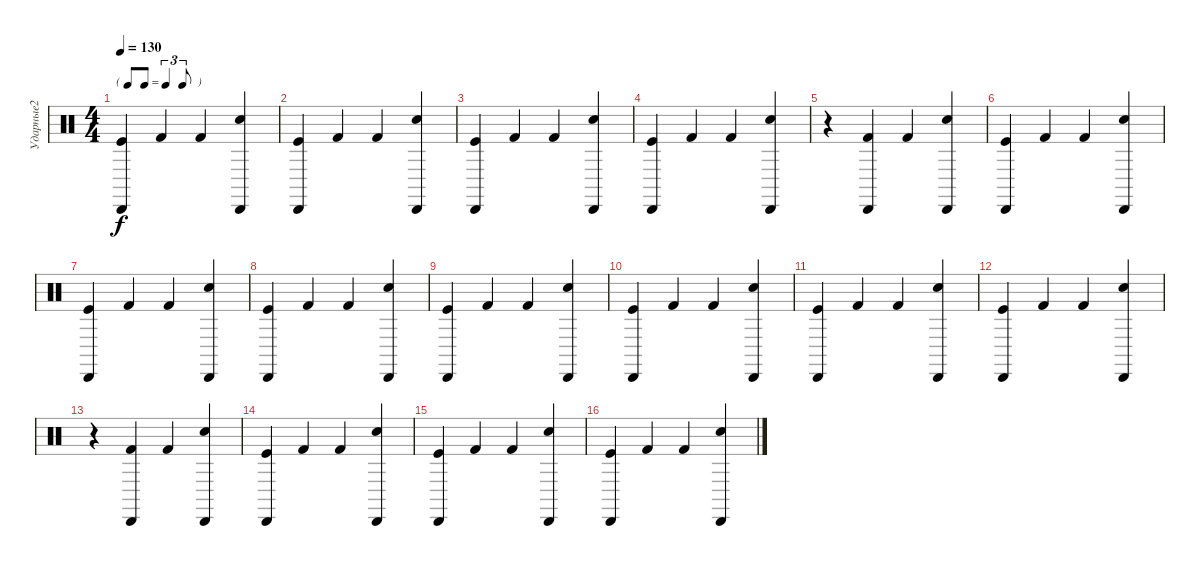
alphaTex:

\track ("Ударные2" "Ударные2") {instrument percussion}
\staff {score}
\articulation defaults
\ts (4 4)
\tf triplet8th
\tempo 130
\clef neutral
\ks c
("Cabasa (hit)" "Kick (hit)").4{dy f} "Kick (hit) 2".4 "Kick (hit) 2".4 ("Cabasa (hit)" "Snare (hit) 2").4 |
("Cabasa (hit)" "Kick (hit)").4 "Kick (hit) 2".4 "Kick (hit) 2".4 ("Cabasa (hit)" "Snare (hit) 2").4 |
("Cabasa (hit)" "Kick (hit)").4 "Kick (hit) 2".4 "Kick (hit) 2".4 ("Cabasa (hit)" "Snare (hit) 2").4 |
("Cabasa (hit)" "Kick (hit)").4 "Kick (hit) 2".4 "Kick (hit) 2".4 ("Cabasa (hit)" "Snare (hit) 2").4 |
r.4 ("Cabasa (hit)" "Kick (hit) 2").4 "Kick (hit) 2".4 ("Cabasa (hit)" "Snare (hit) 2").4 |
("Cabasa (hit)" "Kick (hit)").4 "Kick (hit) 2".4 "Kick (hit) 2".4 ("Cabasa (hit)" "Snare (hit) 2").4 |
("Cabasa (hit)" "Kick (hit)").4 "Kick (hit) 2".4 "Kick (hit) 2".4 ("Cabasa (hit)" "Snare (hit) 2").4 |
("Cabasa (hit)" "Kick (hit)").4 "Kick (hit) 2".4 "Kick (hit) 2".4 ("Cabasa (hit)" "Snare (hit) 2").4 |
("Cabasa (hit)" "Kick (hit)").4 "Kick (hit) 2".4 "Kick (hit) 2".4 ("Cabasa (hit)" "Snare (hit) 2").4 |
("Cabasa (hit)" "Kick (hit)").4 "Kick (hit) 2".4 "Kick (hit) 2".4 ("Cabasa (hit)" "Snare (hit) 2").4 |
("Cabasa (hit)" "Kick (hit)").4 "Kick (hit) 2".4 "Kick (hit) 2".4 ("Cabasa (hit)" "Snare (hit) 2").4 |
("Cabasa (hit)" "Kick (hit)").4 "Kick (hit) 2".4 "Kick (hit) 2".4 ("Cabasa (hit)" "Snare (hit) 2").4 |
r.4 ("Cabasa (hit)" "Kick (hit) 2").4 "Kick (hit) 2".4 ("Cabasa (hit)" "Snare (hit) 2").4 |
("Cabasa (hit)" "Kick (hit)").4 "Kick (hit) 2".4 "Kick (hit) 2".4 ("Cabasa (hit)" "Snare (hit) 2").4 |
("Cabasa (hit)" "Kick (hit)").4 "Kick (hit) 2".4 "Kick (hit) 2".4 ("Cabasa (hit)" "Snare (hit) 2").4 |
("Cabasa (hit)" "Kick (hit)").4 "Kick (hit) 2".4 "Kick (hit) 2".4 ("Cabasa (hit)" "Snare (hit) 2").4
